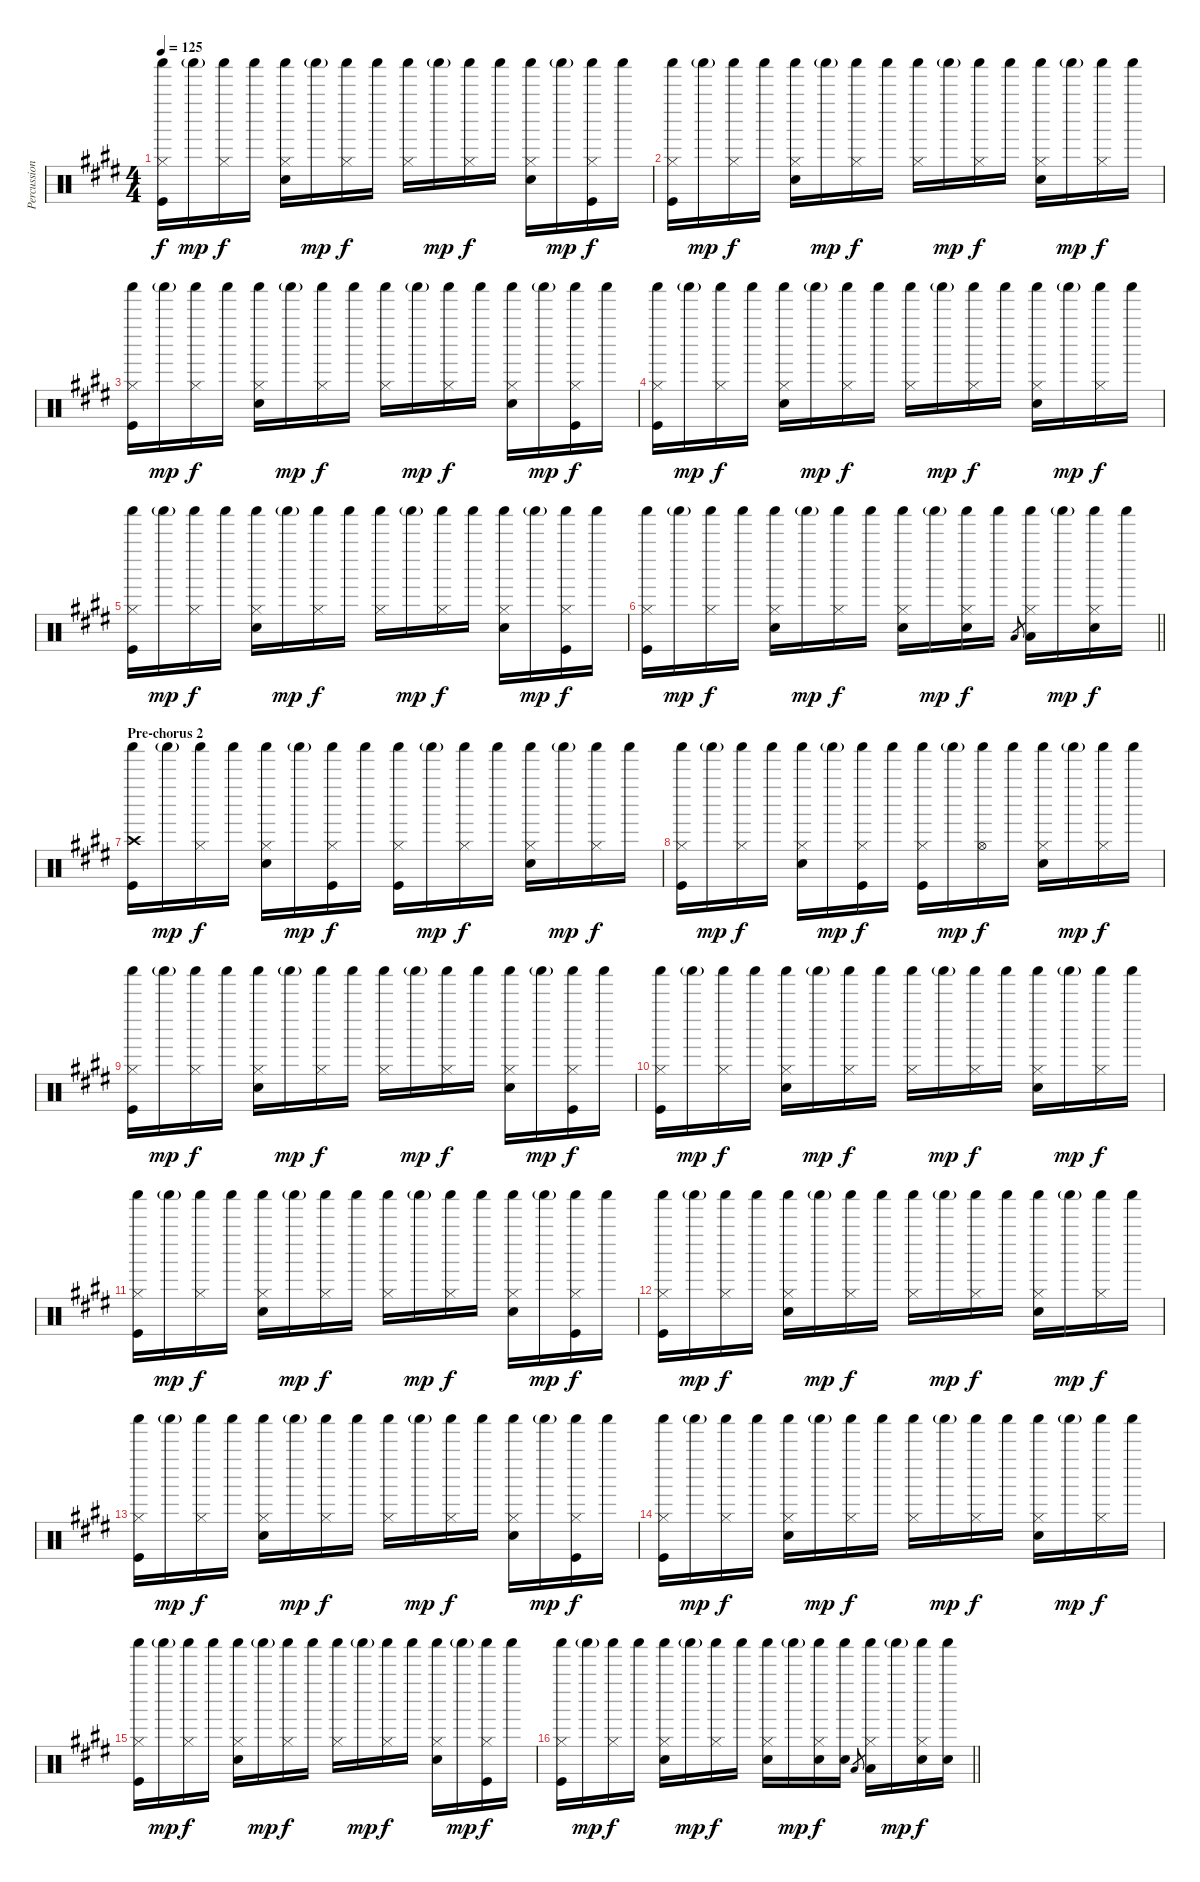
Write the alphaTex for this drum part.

\track ("Percussion" "Percussion") {instrument percussion}
\staff {score}
\articulation defaults
\ts (4 4)
\tempo 125
\clef neutral
\ks c#minor
("Hi-Hat (closed)" "Shaker (hit)" "Kick (hit)").16{dy f} "Shaker (hit)"{g}.16{dy mp} ("Hi-Hat (closed)" "Shaker (hit)").16{dy f} "Shaker (hit)".16 ("Hi-Hat (closed)" "Shaker (hit)" "Electric Snare (hit)").16 "Shaker (hit)"{g}.16{dy mp} ("Hi-Hat (closed)" "Shaker (hit)").16{dy f} "Shaker (hit)".16 ("Hi-Hat (closed)" "Shaker (hit)").16 "Shaker (hit)"{g}.16{dy mp} ("Hi-Hat (closed)" "Shaker (hit)").16{dy f} "Shaker (hit)".16 ("Hi-Hat (closed)" "Shaker (hit)" "Electric Snare (hit)").16 "Shaker (hit)"{g}.16{dy mp} ("Hi-Hat (closed)" "Shaker (hit)" "Kick (hit)").16{dy f} "Shaker (hit)".16 |
("Hi-Hat (closed)" "Shaker (hit)" "Kick (hit)").16 "Shaker (hit)"{g}.16{dy mp} ("Hi-Hat (closed)" "Shaker (hit)").16{dy f} "Shaker (hit)".16 ("Hi-Hat (closed)" "Shaker (hit)" "Electric Snare (hit)").16 "Shaker (hit)"{g}.16{dy mp} ("Hi-Hat (closed)" "Shaker (hit)").16{dy f} "Shaker (hit)".16 ("Hi-Hat (closed)" "Shaker (hit)").16 "Shaker (hit)"{g}.16{dy mp} ("Hi-Hat (closed)" "Shaker (hit)").16{dy f} "Shaker (hit)".16 ("Hi-Hat (closed)" "Shaker (hit)" "Electric Snare (hit)").16 "Shaker (hit)"{g}.16{dy mp} ("Hi-Hat (closed)" "Shaker (hit)").16{dy f} "Shaker (hit)".16 |
("Hi-Hat (closed)" "Shaker (hit)" "Kick (hit)").16 "Shaker (hit)"{g}.16{dy mp} ("Hi-Hat (closed)" "Shaker (hit)").16{dy f} "Shaker (hit)".16 ("Hi-Hat (closed)" "Shaker (hit)" "Electric Snare (hit)").16 "Shaker (hit)"{g}.16{dy mp} ("Hi-Hat (closed)" "Shaker (hit)").16{dy f} "Shaker (hit)".16 ("Hi-Hat (closed)" "Shaker (hit)").16 "Shaker (hit)"{g}.16{dy mp} ("Hi-Hat (closed)" "Shaker (hit)").16{dy f} "Shaker (hit)".16 ("Hi-Hat (closed)" "Shaker (hit)" "Electric Snare (hit)").16 "Shaker (hit)"{g}.16{dy mp} ("Hi-Hat (closed)" "Shaker (hit)" "Kick (hit)").16{dy f} "Shaker (hit)".16 |
("Hi-Hat (closed)" "Shaker (hit)" "Kick (hit)").16 "Shaker (hit)"{g}.16{dy mp} ("Hi-Hat (closed)" "Shaker (hit)").16{dy f} "Shaker (hit)".16 ("Hi-Hat (closed)" "Shaker (hit)" "Electric Snare (hit)").16 "Shaker (hit)"{g}.16{dy mp} ("Hi-Hat (closed)" "Shaker (hit)").16{dy f} "Shaker (hit)".16 ("Hi-Hat (closed)" "Shaker (hit)").16 "Shaker (hit)"{g}.16{dy mp} ("Hi-Hat (closed)" "Shaker (hit)").16{dy f} "Shaker (hit)".16 ("Hi-Hat (closed)" "Shaker (hit)" "Electric Snare (hit)").16 "Shaker (hit)"{g}.16{dy mp} ("Hi-Hat (closed)" "Shaker (hit)").16{dy f} "Shaker (hit)".16 |
("Hi-Hat (closed)" "Shaker (hit)" "Kick (hit)").16 "Shaker (hit)"{g}.16{dy mp} ("Hi-Hat (closed)" "Shaker (hit)").16{dy f} "Shaker (hit)".16 ("Hi-Hat (closed)" "Shaker (hit)" "Electric Snare (hit)").16 "Shaker (hit)"{g}.16{dy mp} ("Hi-Hat (closed)" "Shaker (hit)").16{dy f} "Shaker (hit)".16 ("Hi-Hat (closed)" "Shaker (hit)").16 "Shaker (hit)"{g}.16{dy mp} ("Hi-Hat (closed)" "Shaker (hit)").16{dy f} "Shaker (hit)".16 ("Hi-Hat (closed)" "Shaker (hit)" "Electric Snare (hit)").16 "Shaker (hit)"{g}.16{dy mp} ("Hi-Hat (closed)" "Shaker (hit)" "Kick (hit)").16{dy f} "Shaker (hit)".16 |
\barLineRight lightlight
("Hi-Hat (closed)" "Shaker (hit)" "Kick (hit)").16 "Shaker (hit)"{g}.16{dy mp} ("Hi-Hat (closed)" "Shaker (hit)").16{dy f} "Shaker (hit)".16 ("Hi-Hat (closed)" "Shaker (hit)" "Electric Snare (hit)").16 "Shaker (hit)"{g}.16{dy mp} ("Hi-Hat (closed)" "Shaker (hit)").16{dy f} "Shaker (hit)".16 ("Hi-Hat (closed)" "Shaker (hit)" "Electric Snare (hit)").16 "Shaker (hit)"{g}.16{dy mp} ("Hi-Hat (closed)" "Shaker (hit)" "Electric Snare (hit)").16{dy f} "Shaker (hit)".16 "Low Floor Tom (hit)".8{gr} ("Hi-Hat (closed)" "Shaker (hit)" "Low Floor Tom (hit)").16 "Shaker (hit)"{g}.16{dy mp} ("Hi-Hat (closed)" "Shaker (hit)" "Electric Snare (hit)").16{dy f} "Shaker (hit)".16 |
\section ("" "Pre-chorus 2")
("Crash high (hit)" "Shaker (hit)" "Kick (hit)").16 "Shaker (hit)"{g}.16{dy mp} ("Hi-Hat (closed)" "Shaker (hit)").16{dy f} "Shaker (hit)".16 ("Hi-Hat (closed)" "Shaker (hit)" "Electric Snare (hit)").16 "Shaker (hit)"{g}.16{dy mp} ("Hi-Hat (closed)" "Shaker (hit)" "Kick (hit)").16{dy f} "Shaker (hit)".16 ("Hi-Hat (closed)" "Shaker (hit)" "Kick (hit)").16 "Shaker (hit)"{g}.16{dy mp} ("Hi-Hat (closed)" "Shaker (hit)").16{dy f} "Shaker (hit)".16 ("Hi-Hat (closed)" "Shaker (hit)" "Electric Snare (hit)").16 "Shaker (hit)"{g}.16{dy mp} ("Hi-Hat (closed)" "Shaker (hit)").16{dy f} "Shaker (hit)".16 |
("Hi-Hat (closed)" "Shaker (hit)" "Kick (hit)").16 "Shaker (hit)"{g}.16{dy mp} ("Hi-Hat (closed)" "Shaker (hit)").16{dy f} "Shaker (hit)".16 ("Hi-Hat (closed)" "Shaker (hit)" "Electric Snare (hit)").16 "Shaker (hit)"{g}.16{dy mp} ("Hi-Hat (closed)" "Shaker (hit)" "Kick (hit)").16{dy f} "Shaker (hit)".16 ("Hi-Hat (closed)" "Shaker (hit)" "Kick (hit)").16 "Shaker (hit)"{g}.16{dy mp} ("Hi-Hat (open)" "Shaker (hit)").16{dy f} "Shaker (hit)".16 ("Hi-Hat (closed)" "Shaker (hit)" "Electric Snare (hit)").16 "Shaker (hit)"{g}.16{dy mp} ("Hi-Hat (closed)" "Shaker (hit)").16{dy f} "Shaker (hit)".16 |
("Hi-Hat (closed)" "Shaker (hit)" "Kick (hit)").16 "Shaker (hit)"{g}.16{dy mp} ("Hi-Hat (closed)" "Shaker (hit)").16{dy f} "Shaker (hit)".16 ("Hi-Hat (closed)" "Shaker (hit)" "Electric Snare (hit)").16 "Shaker (hit)"{g}.16{dy mp} ("Hi-Hat (closed)" "Shaker (hit)").16{dy f} "Shaker (hit)".16 ("Hi-Hat (closed)" "Shaker (hit)").16 "Shaker (hit)"{g}.16{dy mp} ("Hi-Hat (closed)" "Shaker (hit)").16{dy f} "Shaker (hit)".16 ("Hi-Hat (closed)" "Shaker (hit)" "Electric Snare (hit)").16 "Shaker (hit)"{g}.16{dy mp} ("Hi-Hat (closed)" "Shaker (hit)" "Kick (hit)").16{dy f} "Shaker (hit)".16 |
("Hi-Hat (closed)" "Shaker (hit)" "Kick (hit)").16 "Shaker (hit)"{g}.16{dy mp} ("Hi-Hat (closed)" "Shaker (hit)").16{dy f} "Shaker (hit)".16 ("Hi-Hat (closed)" "Shaker (hit)" "Electric Snare (hit)").16 "Shaker (hit)"{g}.16{dy mp} ("Hi-Hat (closed)" "Shaker (hit)").16{dy f} "Shaker (hit)".16 ("Hi-Hat (closed)" "Shaker (hit)").16 "Shaker (hit)"{g}.16{dy mp} ("Hi-Hat (closed)" "Shaker (hit)").16{dy f} "Shaker (hit)".16 ("Hi-Hat (closed)" "Shaker (hit)" "Electric Snare (hit)").16 "Shaker (hit)"{g}.16{dy mp} ("Hi-Hat (closed)" "Shaker (hit)").16{dy f} "Shaker (hit)".16 |
("Hi-Hat (closed)" "Shaker (hit)" "Kick (hit)").16 "Shaker (hit)"{g}.16{dy mp} ("Hi-Hat (closed)" "Shaker (hit)").16{dy f} "Shaker (hit)".16 ("Hi-Hat (closed)" "Shaker (hit)" "Electric Snare (hit)").16 "Shaker (hit)"{g}.16{dy mp} ("Hi-Hat (closed)" "Shaker (hit)").16{dy f} "Shaker (hit)".16 ("Hi-Hat (closed)" "Shaker (hit)").16 "Shaker (hit)"{g}.16{dy mp} ("Hi-Hat (closed)" "Shaker (hit)").16{dy f} "Shaker (hit)".16 ("Hi-Hat (closed)" "Shaker (hit)" "Electric Snare (hit)").16 "Shaker (hit)"{g}.16{dy mp} ("Hi-Hat (closed)" "Shaker (hit)" "Kick (hit)").16{dy f} "Shaker (hit)".16 |
("Hi-Hat (closed)" "Shaker (hit)" "Kick (hit)").16 "Shaker (hit)"{g}.16{dy mp} ("Hi-Hat (closed)" "Shaker (hit)").16{dy f} "Shaker (hit)".16 ("Hi-Hat (closed)" "Shaker (hit)" "Electric Snare (hit)").16 "Shaker (hit)"{g}.16{dy mp} ("Hi-Hat (closed)" "Shaker (hit)").16{dy f} "Shaker (hit)".16 ("Hi-Hat (closed)" "Shaker (hit)").16 "Shaker (hit)"{g}.16{dy mp} ("Hi-Hat (closed)" "Shaker (hit)").16{dy f} "Shaker (hit)".16 ("Hi-Hat (closed)" "Shaker (hit)" "Electric Snare (hit)").16 "Shaker (hit)"{g}.16{dy mp} ("Hi-Hat (closed)" "Shaker (hit)").16{dy f} "Shaker (hit)".16 |
("Hi-Hat (closed)" "Shaker (hit)" "Kick (hit)").16 "Shaker (hit)"{g}.16{dy mp} ("Hi-Hat (closed)" "Shaker (hit)").16{dy f} "Shaker (hit)".16 ("Hi-Hat (closed)" "Shaker (hit)" "Electric Snare (hit)").16 "Shaker (hit)"{g}.16{dy mp} ("Hi-Hat (closed)" "Shaker (hit)").16{dy f} "Shaker (hit)".16 ("Hi-Hat (closed)" "Shaker (hit)").16 "Shaker (hit)"{g}.16{dy mp} ("Hi-Hat (closed)" "Shaker (hit)").16{dy f} "Shaker (hit)".16 ("Hi-Hat (closed)" "Shaker (hit)" "Electric Snare (hit)").16 "Shaker (hit)"{g}.16{dy mp} ("Hi-Hat (closed)" "Shaker (hit)" "Kick (hit)").16{dy f} "Shaker (hit)".16 |
("Hi-Hat (closed)" "Shaker (hit)" "Kick (hit)").16 "Shaker (hit)"{g}.16{dy mp} ("Hi-Hat (closed)" "Shaker (hit)").16{dy f} "Shaker (hit)".16 ("Hi-Hat (closed)" "Shaker (hit)" "Electric Snare (hit)").16 "Shaker (hit)"{g}.16{dy mp} ("Hi-Hat (closed)" "Shaker (hit)").16{dy f} "Shaker (hit)".16 ("Hi-Hat (closed)" "Shaker (hit)").16 "Shaker (hit)"{g}.16{dy mp} ("Hi-Hat (closed)" "Shaker (hit)").16{dy f} "Shaker (hit)".16 ("Hi-Hat (closed)" "Shaker (hit)" "Electric Snare (hit)").16 "Shaker (hit)"{g}.16{dy mp} ("Hi-Hat (closed)" "Shaker (hit)").16{dy f} "Shaker (hit)".16 |
("Hi-Hat (closed)" "Shaker (hit)" "Kick (hit)").16 "Shaker (hit)"{g}.16{dy mp} ("Hi-Hat (closed)" "Shaker (hit)").16{dy f} "Shaker (hit)".16 ("Hi-Hat (closed)" "Shaker (hit)" "Electric Snare (hit)").16 "Shaker (hit)"{g}.16{dy mp} ("Hi-Hat (closed)" "Shaker (hit)").16{dy f} "Shaker (hit)".16 ("Hi-Hat (closed)" "Shaker (hit)").16 "Shaker (hit)"{g}.16{dy mp} ("Hi-Hat (closed)" "Shaker (hit)").16{dy f} "Shaker (hit)".16 ("Hi-Hat (closed)" "Shaker (hit)" "Electric Snare (hit)").16 "Shaker (hit)"{g}.16{dy mp} ("Hi-Hat (closed)" "Shaker (hit)" "Kick (hit)").16{dy f} "Shaker (hit)".16 |
\barLineRight lightlight
("Hi-Hat (closed)" "Shaker (hit)" "Kick (hit)").16 "Shaker (hit)"{g}.16{dy mp} ("Hi-Hat (closed)" "Shaker (hit)").16{dy f} "Shaker (hit)".16 ("Hi-Hat (closed)" "Shaker (hit)" "Electric Snare (hit)").16 "Shaker (hit)"{g}.16{dy mp} ("Hi-Hat (closed)" "Shaker (hit)").16{dy f} "Shaker (hit)".16 ("Hi-Hat (closed)" "Shaker (hit)" "Electric Snare (hit)").16 "Shaker (hit)"{g}.16{dy mp} ("Hi-Hat (closed)" "Shaker (hit)" "Electric Snare (hit)").16{dy f} ("Shaker (hit)" "Electric Snare (hit)").16 "Low Floor Tom (hit)".8{gr} ("Hi-Hat (closed)" "Shaker (hit)" "Low Floor Tom (hit)").16 "Shaker (hit)"{g}.16{dy mp} ("Hi-Hat (closed)" "Shaker (hit)" "Electric Snare (hit)").16{dy f} ("Shaker (hit)" "Electric Snare (hit)").16
